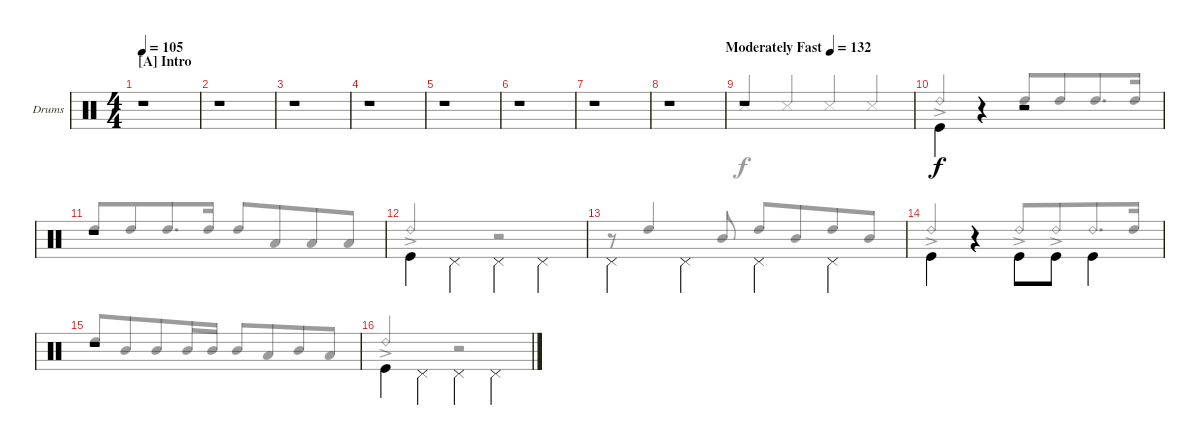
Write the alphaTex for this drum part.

\bracketExtendMode groupsimilarinstruments
\firstSystemTrackNameOrientation horizontal
\otherSystemsTrackNameOrientation horizontal
\track ("Drum" "Drums") {instrument percussion}
\staff {score}
\articulation defaults
\voice
\ts (4 4)
\beaming (8 4 4)
\section ("A" "Intro")
\tempo 105
\clef neutral
\scale
1.05675
\ks aminor
r.1{dy f} |
\scale
0.943253 r.1 |
\scale
1.02648 r.1 |
\scale
0.973518 r.1 |
\scale
1.02648 r.1 |
\scale
0.973518 r.1 |
\scale
1.02648 r.1 |
\tempo (132 "Moderately Fast" 1)
\scale
0.973518 r.1 |
\scale
1.02648 r.1 |
\scale
0.973518 "Kick (hit)".4{beam invert} r.4 r.2 |
\scale
1.02648 r.1 |
\scale
0.973518 "Kick (hit)".4{beam invert} "Pedal Hi-Hat (hit)".4{beam invert} "Pedal Hi-Hat (hit)".4{beam invert} "Pedal Hi-Hat (hit)".4{beam invert} |
\scale
1.02648 "Pedal Hi-Hat (hit)".4{beam invert} "Pedal Hi-Hat (hit)".4{beam invert} "Pedal Hi-Hat (hit)".4{beam invert} "Pedal Hi-Hat (hit)".4{beam invert} |
\scale
0.973518 "Kick (hit)".4{beam invert} r.4 "Kick (hit)".8{beam invert} "Kick (hit)".8 "Kick (hit)".4{beam invert} |
\scale
1.02648 r.1 |
\scale
0.973518 "Kick (hit)".4{beam invert} "Pedal Hi-Hat (hit)".4{beam invert} "Pedal Hi-Hat (hit)".4{beam invert} "Pedal Hi-Hat (hit)".4{beam invert}
\voice
\clef neutral
\ottava regular
\simile none
\scale
1.05675
\ks aminor
|
\scale
0.943253 |
\scale
1.02648 |
\scale
0.973518 |
\scale
1.02648 |
\scale
0.973518 |
\scale
1.02648 |
\scale
0.973518 |
\scale
1.02648 "Snare (side stick) 3".4{beam invert} "Snare (side stick) 3".4{beam invert} "Snare (side stick) 3".4{beam invert} "Snare (side stick) 3".4{beam invert} |
\scale
0.973518 "Ride (bell) 2"{ac}.2{beam invert} "High Tom (hit)".8{beam invert} "High Tom (hit)".8 "High Tom (hit)".8{d} "High Tom (hit)".16 |
\scale
1.02648 "High Tom (hit)".8{beam invert} "High Tom (hit)".8 "High Tom (hit)".8{d} "High Tom (hit)".16 "High Tom (hit)".8{beam invert} "Low Tom (hit)".8 "Low Tom (hit)".8 "Low Tom (hit)".8 |
\scale
0.973518 "Ride (bell) 2"{ac}.2{beam invert} r.2 |
\scale
1.02648 r.8 "High Tom (hit)".4{beam invert} "Mid Tom (hit)".8{beam invert} "High Tom (hit)".8{beam invert} "Mid Tom (hit)".8 "High Tom (hit)".8 "Mid Tom (hit)".8 |
\scale
0.973518 "Ride (bell) 2"{ac}.2{beam invert} "Ride (bell) 2"{ac}.8{beam invert} "Ride (bell) 2"{ac}.8 "Ride (bell) 2".8{d} "High Tom (hit)".16 |
\scale
1.02648 "High Tom (hit)".8{beam invert} "Mid Tom (hit)".8 "Mid Tom (hit)".8 "Mid Tom (hit)".16 "Mid Tom (hit)".16 "Mid Tom (hit)".8{beam invert} "Low Tom (hit)".8 "Mid Tom (hit)".8 "Low Tom (hit)".8 |
\scale
0.973518 "Ride (bell) 2"{ac}.2{beam invert} r.2
